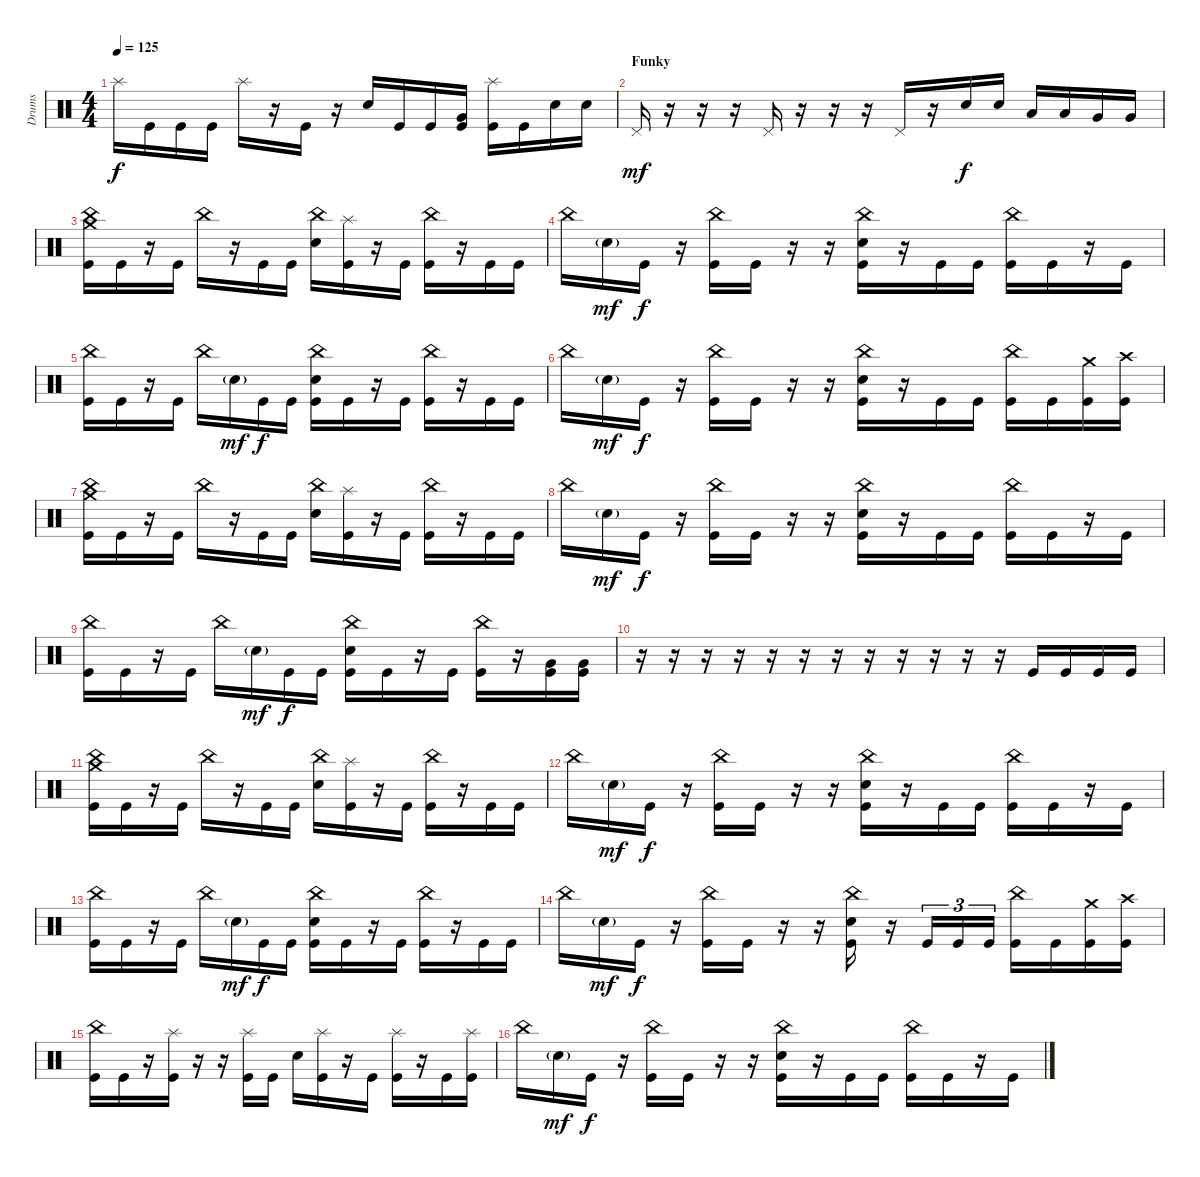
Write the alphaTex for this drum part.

\track ("Drums" "Drums") {instrument percussion}
\staff {score}
\articulation defaults
\ts (4 4)
\tempo 125
\clef neutral
\ks c "Splash (hit)".16{dy f} "Kick (hit)".16 "Kick (hit)".16 "Kick (hit)".16 "Splash (hit)".16
r.16 "Kick (hit)".16 r.16 "Snare (hit) 2".16 "Kick (hit)".16 "Kick (hit)".16 ("Kick (hit)" "Very Low Tom (hit)").16 ("Kick (hit)" "Splash (hit)").16 "Kick (hit)".16 "Snare (hit) 2".16 "Snare (hit) 2".16 |
\section ("" "Funky")
"Pedal Hi-Hat (hit)".16{dy mf} r.16 r.16 r.16 "Pedal Hi-Hat (hit)".16 r.16 r.16 r.16 "Pedal Hi-Hat (hit)".16 r.16 "Snare (hit) 2".16{dy f} "Snare (hit) 2".16 "Low Tom (hit)".16 "Low Tom (hit)".16 "Very Low Tom (hit)".16 "Very Low Tom (hit)".16 |
("Crash medium (hit)" "China (hit)" "Kick (hit)").16 "Kick (hit)".16 r.16 "Kick (hit)".16 "China (hit)".16 r.16 "Kick (hit)".16 "Kick (hit)".16 ("Snare (hit) 2" "China (hit)").16 ("Splash (hit)" "Kick (hit)").16 r.16 "Kick (hit)".16 ("China (hit)" "Kick (hit)").16 r.16 "Kick (hit)".16 "Kick (hit)".16 |
"China (hit)".16 "Snare (hit) 2"{g}.16{dy mf} "Kick (hit)".16{dy f} r.16 ("China (hit)" "Kick (hit)").16 "Kick (hit)".16 r.16 r.16 ("China (hit)" "Snare (hit) 2" "Kick (hit)").16 r.16 "Kick (hit)".16 "Kick (hit)".16 ("China (hit)" "Kick (hit)").16 "Kick (hit)".16 r.16 "Kick (hit)".16 |
("China (hit)" "Kick (hit)").16 "Kick (hit)".16 r.16 "Kick (hit)".16 "China (hit)".16 "Snare (hit) 2"{g}.16{dy mf} "Kick (hit)".16{dy f} "Kick (hit)".16 ("Snare (hit) 2" "China (hit)" "Kick (hit)").16 "Kick (hit)".16 r.16 "Kick (hit)".16 ("China (hit)" "Kick (hit)").16 r.16 "Kick (hit)".16 "Kick (hit)".16 |
"China (hit)".16 "Snare (hit) 2"{g}.16{dy mf} "Kick (hit)".16{dy f} r.16 ("China (hit)" "Kick (hit)").16 "Kick (hit)".16 r.16 r.16 ("China (hit)" "Snare (hit) 2" "Kick (hit)").16 r.16 "Kick (hit)".16 "Kick (hit)".16 ("China (hit)" "Kick (hit)").16 "Kick (hit)".16 ("Kick (hit)" "Crash medium (hit)").16 ("Kick (hit)" "Crash high (hit)").16 |
("Kick (hit)" "China (hit)" "Crash medium (hit)").16 "Kick (hit)".16 r.16 "Kick (hit)".16 "China (hit)".16 r.16 "Kick (hit)".16 "Kick (hit)".16 ("Snare (hit) 2" "China (hit)").16 ("Splash (hit)" "Kick (hit)").16 r.16 "Kick (hit)".16 ("China (hit)" "Kick (hit)").16 r.16 "Kick (hit)".16 "Kick (hit)".16 |
"China (hit)".16 "Snare (hit) 2"{g}.16{dy mf} "Kick (hit)".16{dy f} r.16 ("China (hit)" "Kick (hit)").16 "Kick (hit)".16 r.16 r.16 ("China (hit)" "Snare (hit) 2" "Kick (hit)").16 r.16 "Kick (hit)".16 "Kick (hit)".16 ("China (hit)" "Kick (hit)").16 "Kick (hit)".16 r.16 "Kick (hit)".16 |
("China (hit)" "Kick (hit)").16 "Kick (hit)".16 r.16 "Kick (hit)".16 "China (hit)".16 "Snare (hit) 2"{g}.16{dy mf} "Kick (hit)".16{dy f} "Kick (hit)".16 ("Snare (hit) 2" "China (hit)" "Kick (hit)").16 "Kick (hit)".16 r.16 "Kick (hit)".16 ("China (hit)" "Kick (hit)").16 r.16 ("Kick (hit)" "Very Low Tom (hit)").16 ("Kick (hit)" "Very Low Tom (hit)").16 |
r.16 r.16 r.16 r.16 r.16 r.16 r.16 r.16 r.16 r.16 r.16 r.16 "Kick (hit)".16 "Kick (hit)".16 "Kick (hit)".16 "Kick (hit)".16 |
("Crash medium (hit)" "China (hit)" "Kick (hit)").16 "Kick (hit)".16 r.16 "Kick (hit)".16 "China (hit)".16 r.16 "Kick (hit)".16 "Kick (hit)".16 ("Snare (hit) 2" "China (hit)").16 ("Splash (hit)" "Kick (hit)").16 r.16 "Kick (hit)".16 ("China (hit)" "Kick (hit)").16 r.16 "Kick (hit)".16 "Kick (hit)".16 |
"China (hit)".16 "Snare (hit) 2"{g}.16{dy mf} "Kick (hit)".16{dy f} r.16 ("China (hit)" "Kick (hit)").16 "Kick (hit)".16 r.16 r.16 ("China (hit)" "Snare (hit) 2" "Kick (hit)").16 r.16 "Kick (hit)".16 "Kick (hit)".16 ("China (hit)" "Kick (hit)").16 "Kick (hit)".16 r.16 "Kick (hit)".16 |
("China (hit)" "Kick (hit)").16 "Kick (hit)".16 r.16 "Kick (hit)".16 "China (hit)".16 "Snare (hit) 2"{g}.16{dy mf} "Kick (hit)".16{dy f} "Kick (hit)".16 ("Snare (hit) 2" "China (hit)" "Kick (hit)").16 "Kick (hit)".16 r.16 "Kick (hit)".16 ("China (hit)" "Kick (hit)").16 r.16 "Kick (hit)".16 "Kick (hit)".16 |
"China (hit)".16 "Snare (hit) 2"{g}.16{dy mf} "Kick (hit)".16{dy f} r.16 ("China (hit)" "Kick (hit)").16 "Kick (hit)".16 r.16 r.16 ("China (hit)" "Snare (hit) 2" "Kick (hit)").16 r.16 "Kick (hit)".16{tu (3 2)} "Kick (hit)".16{tu (3 2)} "Kick (hit)".16{tu (3 2)} ("China (hit)" "Kick (hit)").16 "Kick (hit)".16 ("Kick (hit)" "Crash medium (hit)").16 ("Kick (hit)" "Crash high (hit)").16 |
("Kick (hit)" "China (hit)").16 "Kick (hit)".16 r.16 ("Kick (hit)" "Splash (hit)").16 r.16 r.16 ("Kick (hit)" "Splash (hit)").16 "Kick (hit)".16 "Snare (hit) 2".16 ("Kick (hit)" "Splash (hit)").16 r.16 "Kick (hit)".16 ("Kick (hit)" "Splash (hit)").16 r.16 "Kick (hit)".16 ("Kick (hit)" "Splash (hit)").16 |
"China (hit)".16 "Snare (hit) 2"{g}.16{dy mf} "Kick (hit)".16{dy f} r.16 ("China (hit)" "Kick (hit)").16 "Kick (hit)".16 r.16 r.16 ("China (hit)" "Snare (hit) 2" "Kick (hit)").16 r.16 "Kick (hit)".16 "Kick (hit)".16 ("China (hit)" "Kick (hit)").16 "Kick (hit)".16 r.16 "Kick (hit)".16
